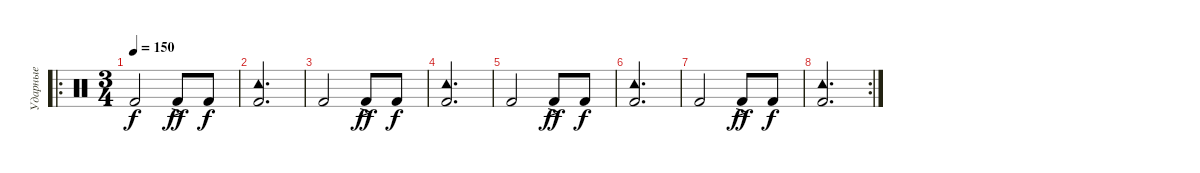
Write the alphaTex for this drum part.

\track ("Ударные" "Ударные") {instrument percussion}
\staff {score}
\articulation defaults
\ro
\ts (3 4)
\tempo 150
\clef neutral
\ks c "Kick (hit) 2".2{dy f} "Kick (hit) 2"{ac}.8{dy ff} "Kick (hit) 2".8{dy f}
|
("Kick (hit) 2" "Tambourine (hit)").2{d} |
"Kick (hit) 2".2 "Kick (hit) 2"{ac}.8{dy ff} "Kick (hit) 2".8{dy f} |
("Kick (hit) 2" "Tambourine (hit)").2{d} |
"Kick (hit) 2".2 "Kick (hit) 2"{ac}.8{dy ff} "Kick (hit) 2".8{dy f} |
("Kick (hit) 2" "Tambourine (hit)").2{d} |
"Kick (hit) 2".2 "Kick (hit) 2"{ac}.8{dy ff} "Kick (hit) 2".8{dy f} |
\rc 2
("Kick (hit) 2" "Tambourine (hit)").2{d}
